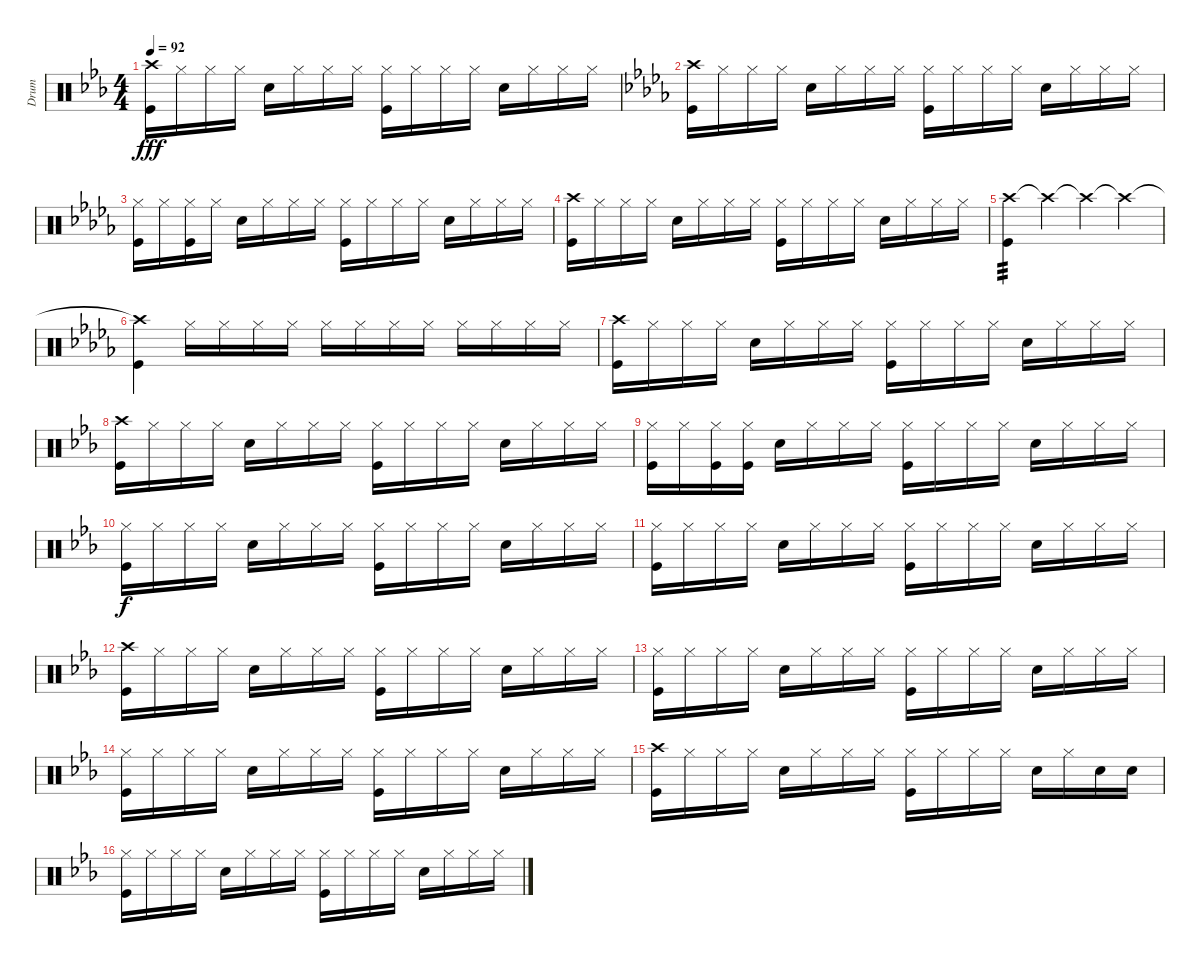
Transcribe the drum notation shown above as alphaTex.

\track ("Drum" "Drum") {instrument percussion}
\staff {score}
\articulation defaults
\ts (4 4)
\tempo 92
\clef neutral
\ks eb
("Crash high (hit)" "Kick (hit)").16{dy fff} "Hi-Hat (closed)".16 "Hi-Hat (closed)".16 "Hi-Hat (closed)".16 "Snare (hit) 2".16 "Hi-Hat (closed)".16 "Hi-Hat (closed)".16 "Hi-Hat (closed)".16 ("Hi-Hat (closed)" "Kick (hit)").16 "Hi-Hat (closed)".16 "Hi-Hat (closed)".16 "Hi-Hat (closed)".16 "Snare (hit) 2".16 "Hi-Hat (closed)".16 "Hi-Hat (closed)".16 "Hi-Hat (closed)".16 |
\ks db
("Crash high (hit)" "Kick (hit)").16 "Hi-Hat (closed)".16 "Hi-Hat (closed)".16 "Hi-Hat (closed)".16 "Snare (hit) 2".16 "Hi-Hat (closed)".16 "Hi-Hat (closed)".16 "Hi-Hat (closed)".16 ("Hi-Hat (closed)" "Kick (hit)").16 "Hi-Hat (closed)".16 "Hi-Hat (closed)".16 "Hi-Hat (closed)".16 "Snare (hit) 2".16 "Hi-Hat (closed)".16 "Hi-Hat (closed)".16 "Hi-Hat (closed)".16 |
("Hi-Hat (closed)" "Kick (hit)").16 "Hi-Hat (closed)".16 ("Hi-Hat (closed)" "Kick (hit)").16 "Hi-Hat (closed)".16 "Snare (hit) 2".16 "Hi-Hat (closed)".16 "Hi-Hat (closed)".16 "Hi-Hat (closed)".16 ("Hi-Hat (closed)" "Kick (hit)").16 "Hi-Hat (closed)".16 "Hi-Hat (closed)".16 "Hi-Hat (closed)".16 "Snare (hit) 2".16 "Hi-Hat (closed)".16 "Hi-Hat (closed)".16 "Hi-Hat (closed)".16 |
("Crash high (hit)" "Kick (hit)").16 "Hi-Hat (closed)".16 "Hi-Hat (closed)".16 "Hi-Hat (closed)".16 "Snare (hit) 2".16 "Hi-Hat (closed)".16 "Hi-Hat (closed)".16 "Hi-Hat (closed)".16 ("Hi-Hat (closed)" "Kick (hit)").16 "Hi-Hat (closed)".16 "Hi-Hat (closed)".16 "Hi-Hat (closed)".16 "Snare (hit) 2".16 "Hi-Hat (closed)".16 "Hi-Hat (closed)".16 "Hi-Hat (closed)".16 |
("Crash high (hit)" "Kick (hit)").4{tp 3} "Crash high (hit)"{t}.4 "Crash high (hit)"{t}.4 "Crash high (hit)"{t}.4 |
("Crash high (hit)"{t} "Kick (hit)").4 "Hi-Hat (closed)".16 "Hi-Hat (closed)".16 "Hi-Hat (closed)".16 "Hi-Hat (closed)".16 "Hi-Hat (closed)".16 "Hi-Hat (closed)".16 "Hi-Hat (closed)".16 "Hi-Hat (closed)".16 "Hi-Hat (closed)".16 "Hi-Hat (closed)".16 "Hi-Hat (closed)".16 "Hi-Hat (closed)".16 |
("Crash high (hit)" "Kick (hit)").16 "Hi-Hat (closed)".16 "Hi-Hat (closed)".16 "Hi-Hat (closed)".16 "Snare (hit) 2".16 "Hi-Hat (closed)".16 "Hi-Hat (closed)".16 "Hi-Hat (closed)".16 ("Hi-Hat (closed)" "Kick (hit)").16 "Hi-Hat (closed)".16 "Hi-Hat (closed)".16 "Hi-Hat (closed)".16 "Snare (hit) 2".16 "Hi-Hat (closed)".16 "Hi-Hat (closed)".16 "Hi-Hat (closed)".16 |
\ks eb
("Crash high (hit)" "Kick (hit)").16 "Hi-Hat (closed)".16 "Hi-Hat (closed)".16 "Hi-Hat (closed)".16 "Snare (hit) 2".16 "Hi-Hat (closed)".16 "Hi-Hat (closed)".16 "Hi-Hat (closed)".16 ("Hi-Hat (closed)" "Kick (hit)").16 "Hi-Hat (closed)".16 "Hi-Hat (closed)".16 "Hi-Hat (closed)".16 "Snare (hit) 2".16 "Hi-Hat (closed)".16 "Hi-Hat (closed)".16 "Hi-Hat (closed)".16 |
("Hi-Hat (closed)" "Kick (hit)").16 "Hi-Hat (closed)".16 ("Hi-Hat (closed)" "Kick (hit)").16 ("Hi-Hat (closed)" "Kick (hit)").16 "Snare (hit) 2".16 "Hi-Hat (closed)".16 "Hi-Hat (closed)".16 "Hi-Hat (closed)".16 ("Hi-Hat (closed)" "Kick (hit)").16 "Hi-Hat (closed)".16 "Hi-Hat (closed)".16 "Hi-Hat (closed)".16 "Snare (hit) 2".16 "Hi-Hat (closed)".16 "Hi-Hat (closed)".16 "Hi-Hat (closed)".16 |
("Hi-Hat (closed)" "Kick (hit)").16{dy f} "Hi-Hat (closed)".16 "Hi-Hat (closed)".16 "Hi-Hat (closed)".16 "Snare (hit) 2".16 "Hi-Hat (closed)".16 "Hi-Hat (closed)".16 "Hi-Hat (closed)".16 ("Hi-Hat (closed)" "Kick (hit)").16 "Hi-Hat (closed)".16 "Hi-Hat (closed)".16 "Hi-Hat (closed)".16 "Snare (hit) 2".16 "Hi-Hat (closed)".16 "Hi-Hat (closed)".16 "Hi-Hat (closed)".16 |
("Hi-Hat (closed)" "Kick (hit)").16 "Hi-Hat (closed)".16 "Hi-Hat (closed)".16 "Hi-Hat (closed)".16 "Snare (hit) 2".16 "Hi-Hat (closed)".16 "Hi-Hat (closed)".16 "Hi-Hat (closed)".16 ("Hi-Hat (closed)" "Kick (hit)").16 "Hi-Hat (closed)".16 "Hi-Hat (closed)".16 "Hi-Hat (closed)".16 "Snare (hit) 2".16 "Hi-Hat (closed)".16 "Hi-Hat (closed)".16 "Hi-Hat (closed)".16 |
("Crash high (hit)" "Kick (hit)").16 "Hi-Hat (closed)".16 "Hi-Hat (closed)".16 "Hi-Hat (closed)".16 "Snare (hit) 2".16 "Hi-Hat (closed)".16 "Hi-Hat (closed)".16 "Hi-Hat (closed)".16 ("Hi-Hat (closed)" "Kick (hit)").16 "Hi-Hat (closed)".16 "Hi-Hat (closed)".16 "Hi-Hat (closed)".16 "Snare (hit) 2".16 "Hi-Hat (closed)".16 "Hi-Hat (closed)".16 "Hi-Hat (closed)".16 |
("Hi-Hat (closed)" "Kick (hit)").16 "Hi-Hat (closed)".16 "Hi-Hat (closed)".16 "Hi-Hat (closed)".16 "Snare (hit) 2".16 "Hi-Hat (closed)".16 "Hi-Hat (closed)".16 "Hi-Hat (closed)".16 ("Hi-Hat (closed)" "Kick (hit)").16 "Hi-Hat (closed)".16 "Hi-Hat (closed)".16 "Hi-Hat (closed)".16 "Snare (hit) 2".16 "Hi-Hat (closed)".16 "Hi-Hat (closed)".16 "Hi-Hat (closed)".16 |
("Hi-Hat (closed)" "Kick (hit)").16 "Hi-Hat (closed)".16 "Hi-Hat (closed)".16 "Hi-Hat (closed)".16 "Snare (hit) 2".16 "Hi-Hat (closed)".16 "Hi-Hat (closed)".16 "Hi-Hat (closed)".16 ("Hi-Hat (closed)" "Kick (hit)").16 "Hi-Hat (closed)".16 "Hi-Hat (closed)".16 "Hi-Hat (closed)".16 "Snare (hit) 2".16 "Hi-Hat (closed)".16 "Hi-Hat (closed)".16 "Hi-Hat (closed)".16 |
("Crash high (hit)" "Kick (hit)").16 "Hi-Hat (closed)".16 "Hi-Hat (closed)".16 "Hi-Hat (closed)".16 "Snare (hit) 2".16 "Hi-Hat (closed)".16 "Hi-Hat (closed)".16 "Hi-Hat (closed)".16 ("Hi-Hat (closed)" "Kick (hit)").16 "Hi-Hat (closed)".16 "Hi-Hat (closed)".16 "Hi-Hat (closed)".16 "Snare (hit) 2".16 "Hi-Hat (closed)".16 "Snare (hit) 2".16 "Snare (hit) 2".16 |
("Hi-Hat (closed)" "Kick (hit)").16 "Hi-Hat (closed)".16 "Hi-Hat (closed)".16 "Hi-Hat (closed)".16 "Snare (hit) 2".16 "Hi-Hat (closed)".16 "Hi-Hat (closed)".16 "Hi-Hat (closed)".16 ("Hi-Hat (closed)" "Kick (hit)").16 "Hi-Hat (closed)".16 "Hi-Hat (closed)".16 "Hi-Hat (closed)".16 "Snare (hit) 2".16 "Hi-Hat (closed)".16 "Hi-Hat (closed)".16 "Hi-Hat (closed)".16
